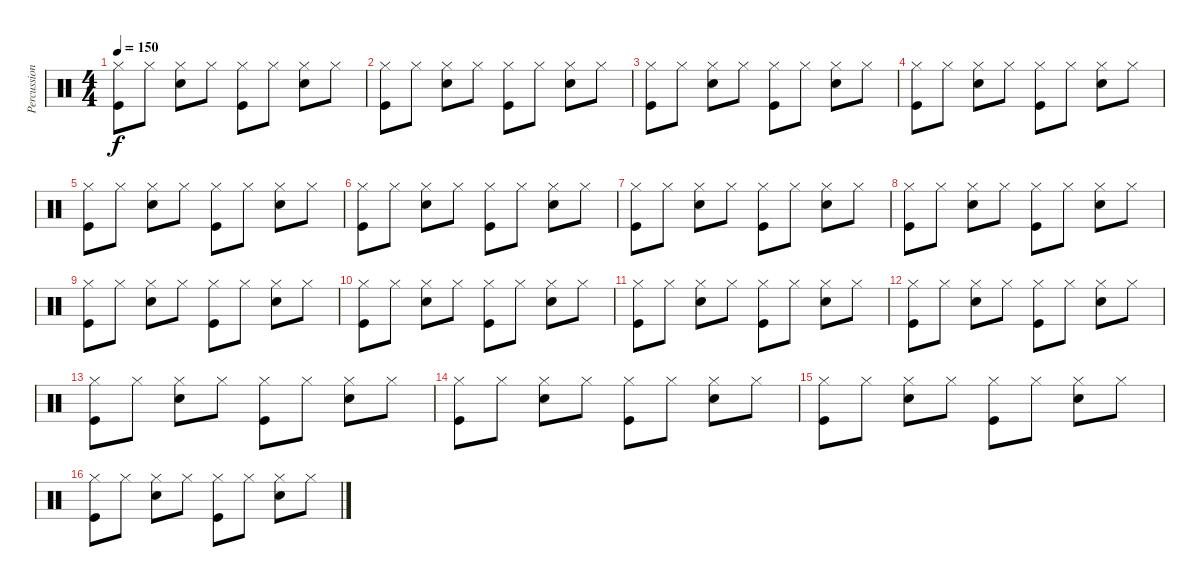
\track ("Percussion" "Percussion") {instrument percussion}
\staff {score}
\articulation defaults
\ts (4 4)
\tempo 150
\clef neutral
\ks c
("Hi-Hat (closed)" "Kick (hit)").8{dy f} "Hi-Hat (closed)".8 ("Hi-Hat (closed)" "Snare (hit) 2").8 "Hi-Hat (closed)".8 ("Hi-Hat (closed)" "Kick (hit)").8 "Hi-Hat (closed)".8 ("Hi-Hat (closed)" "Snare (hit) 2").8 "Hi-Hat (closed)".8 |
("Hi-Hat (closed)" "Kick (hit)").8 "Hi-Hat (closed)".8 ("Hi-Hat (closed)" "Snare (hit) 2").8 "Hi-Hat (closed)".8 ("Hi-Hat (closed)" "Kick (hit)").8 "Hi-Hat (closed)".8 ("Hi-Hat (closed)" "Snare (hit) 2").8 "Hi-Hat (closed)".8 |
("Hi-Hat (closed)" "Kick (hit)").8 "Hi-Hat (closed)".8 ("Hi-Hat (closed)" "Snare (hit) 2").8 "Hi-Hat (closed)".8 ("Hi-Hat (closed)" "Kick (hit)").8 "Hi-Hat (closed)".8 ("Hi-Hat (closed)" "Snare (hit) 2").8 "Hi-Hat (closed)".8 |
("Hi-Hat (closed)" "Kick (hit)").8 "Hi-Hat (closed)".8 ("Hi-Hat (closed)" "Snare (hit) 2").8 "Hi-Hat (closed)".8 ("Hi-Hat (closed)" "Kick (hit)").8 "Hi-Hat (closed)".8 ("Hi-Hat (closed)" "Snare (hit) 2").8 "Hi-Hat (closed)".8 |
("Hi-Hat (closed)" "Kick (hit)").8 "Hi-Hat (closed)".8 ("Hi-Hat (closed)" "Snare (hit) 2").8 "Hi-Hat (closed)".8 ("Hi-Hat (closed)" "Kick (hit)").8 "Hi-Hat (closed)".8 ("Hi-Hat (closed)" "Snare (hit) 2").8 "Hi-Hat (closed)".8 |
("Hi-Hat (closed)" "Kick (hit)").8 "Hi-Hat (closed)".8 ("Hi-Hat (closed)" "Snare (hit) 2").8 "Hi-Hat (closed)".8 ("Hi-Hat (closed)" "Kick (hit)").8 "Hi-Hat (closed)".8 ("Hi-Hat (closed)" "Snare (hit) 2").8 "Hi-Hat (closed)".8 |
("Hi-Hat (closed)" "Kick (hit)").8 "Hi-Hat (closed)".8 ("Hi-Hat (closed)" "Snare (hit) 2").8 "Hi-Hat (closed)".8 ("Hi-Hat (closed)" "Kick (hit)").8 "Hi-Hat (closed)".8 ("Hi-Hat (closed)" "Snare (hit) 2").8 "Hi-Hat (closed)".8 |
("Hi-Hat (closed)" "Kick (hit)").8 "Hi-Hat (closed)".8 ("Hi-Hat (closed)" "Snare (hit) 2").8 "Hi-Hat (closed)".8 ("Hi-Hat (closed)" "Kick (hit)").8 "Hi-Hat (closed)".8 ("Hi-Hat (closed)" "Snare (hit) 2").8 "Hi-Hat (closed)".8 |
("Hi-Hat (closed)" "Kick (hit)").8 "Hi-Hat (closed)".8 ("Hi-Hat (closed)" "Snare (hit) 2").8 "Hi-Hat (closed)".8 ("Hi-Hat (closed)" "Kick (hit)").8 "Hi-Hat (closed)".8 ("Hi-Hat (closed)" "Snare (hit) 2").8 "Hi-Hat (closed)".8 |
("Hi-Hat (closed)" "Kick (hit)").8 "Hi-Hat (closed)".8 ("Hi-Hat (closed)" "Snare (hit) 2").8 "Hi-Hat (closed)".8 ("Hi-Hat (closed)" "Kick (hit)").8 "Hi-Hat (closed)".8 ("Hi-Hat (closed)" "Snare (hit) 2").8 "Hi-Hat (closed)".8 |
("Hi-Hat (closed)" "Kick (hit)").8 "Hi-Hat (closed)".8 ("Hi-Hat (closed)" "Snare (hit) 2").8 "Hi-Hat (closed)".8 ("Hi-Hat (closed)" "Kick (hit)").8 "Hi-Hat (closed)".8 ("Hi-Hat (closed)" "Snare (hit) 2").8 "Hi-Hat (closed)".8 |
("Hi-Hat (closed)" "Kick (hit)").8 "Hi-Hat (closed)".8 ("Hi-Hat (closed)" "Snare (hit) 2").8 "Hi-Hat (closed)".8 ("Hi-Hat (closed)" "Kick (hit)").8 "Hi-Hat (closed)".8 ("Hi-Hat (closed)" "Snare (hit) 2").8 "Hi-Hat (closed)".8 |
("Hi-Hat (closed)" "Kick (hit)").8 "Hi-Hat (closed)".8 ("Hi-Hat (closed)" "Snare (hit) 2").8 "Hi-Hat (closed)".8 ("Hi-Hat (closed)" "Kick (hit)").8 "Hi-Hat (closed)".8 ("Hi-Hat (closed)" "Snare (hit) 2").8 "Hi-Hat (closed)".8 |
("Hi-Hat (closed)" "Kick (hit)").8 "Hi-Hat (closed)".8 ("Hi-Hat (closed)" "Snare (hit) 2").8 "Hi-Hat (closed)".8 ("Hi-Hat (closed)" "Kick (hit)").8 "Hi-Hat (closed)".8 ("Hi-Hat (closed)" "Snare (hit) 2").8 "Hi-Hat (closed)".8 |
("Hi-Hat (closed)" "Kick (hit)").8 "Hi-Hat (closed)".8 ("Hi-Hat (closed)" "Snare (hit) 2").8 "Hi-Hat (closed)".8 ("Hi-Hat (closed)" "Kick (hit)").8 "Hi-Hat (closed)".8 ("Hi-Hat (closed)" "Snare (hit) 2").8 "Hi-Hat (closed)".8 |
("Hi-Hat (closed)" "Kick (hit)").8 "Hi-Hat (closed)".8 ("Hi-Hat (closed)" "Snare (hit) 2").8 "Hi-Hat (closed)".8 ("Hi-Hat (closed)" "Kick (hit)").8 "Hi-Hat (closed)".8 ("Hi-Hat (closed)" "Snare (hit) 2").8 "Hi-Hat (closed)".8
